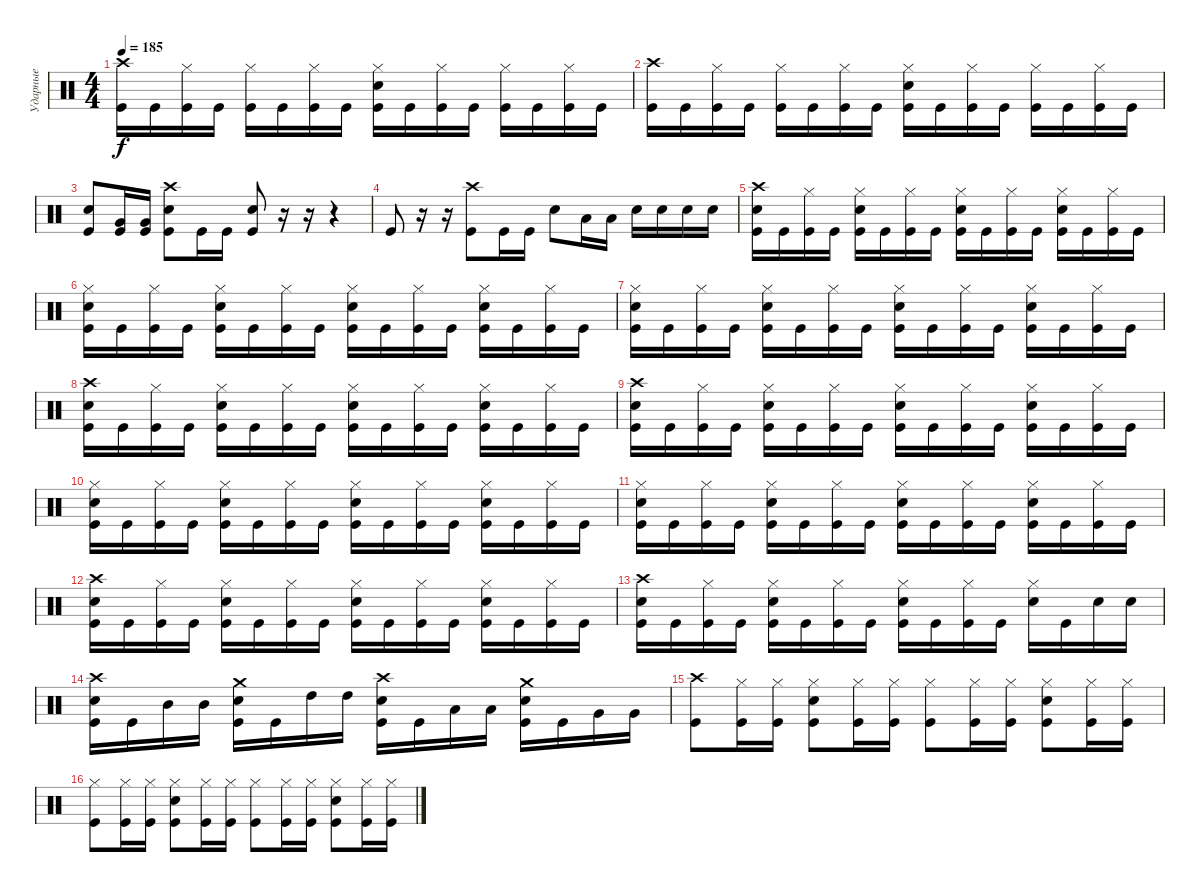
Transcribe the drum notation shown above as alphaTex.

\track ("Ударные" "Ударные") {instrument percussion}
\staff {score}
\articulation defaults
\ts (4 4)
\tempo 185
\clef neutral
\ks c
("Crash high (hit)" "Kick (hit)").16{dy f} "Kick (hit)".16 ("Hi-Hat (closed)" "Kick (hit)").16 "Kick (hit)".16 ("Hi-Hat (closed)" "Kick (hit)").16 "Kick (hit)".16 ("Hi-Hat (closed)" "Kick (hit)").16 "Kick (hit)".16 ("Hi-Hat (closed)" "Electric Snare (hit)" "Kick (hit)").16 "Kick (hit)".16 ("Hi-Hat (closed)" "Kick (hit)").16 "Kick (hit)".16 ("Hi-Hat (closed)" "Kick (hit)").16 "Kick (hit)".16 ("Hi-Hat (closed)" "Kick (hit)").16 "Kick (hit)".16 |
("Crash high (hit)" "Kick (hit)").16 "Kick (hit)".16 ("Hi-Hat (closed)" "Kick (hit)").16 "Kick (hit)".16 ("Hi-Hat (closed)" "Kick (hit)").16 "Kick (hit)".16 ("Hi-Hat (closed)" "Kick (hit)").16 "Kick (hit)".16 ("Hi-Hat (closed)" "Electric Snare (hit)" "Kick (hit)").16 "Kick (hit)".16 ("Hi-Hat (closed)" "Kick (hit)").16 "Kick (hit)".16 ("Hi-Hat (closed)" "Kick (hit)").16 "Kick (hit)".16 ("Hi-Hat (closed)" "Kick (hit)").16 "Kick (hit)".16 |
("Electric Snare (hit)" "Kick (hit)").8 ("Very Low Tom (hit)" "Kick (hit)").16 ("Very Low Tom (hit)" "Kick (hit)").16 ("Crash high (hit)" "Electric Snare (hit)" "Kick (hit)").8 "Kick (hit)".16 "Kick (hit)".16 ("Electric Snare (hit)" "Kick (hit)").8 r.16 r.16 r.4 |
"Kick (hit)".8 r.16 r.16 ("Crash high (hit)" "Kick (hit)").8 "Kick (hit)".16 "Kick (hit)".16 "Electric Snare (hit)".8 "Low Tom (hit)".16 "Low Tom (hit)".16 "Electric Snare (hit)".16 "Electric Snare (hit)".16 "Electric Snare (hit)".16 "Electric Snare (hit)".16 |
("Crash high (hit)" "Electric Snare (hit)" "Kick (hit)").16 "Kick (hit)".16 ("Hi-Hat (closed)" "Kick (hit)").16 "Kick (hit)".16 ("Hi-Hat (closed)" "Electric Snare (hit)" "Kick (hit)").16 "Kick (hit)".16 ("Hi-Hat (closed)" "Kick (hit)").16 "Kick (hit)".16 ("Hi-Hat (closed)" "Electric Snare (hit)" "Kick (hit)").16 "Kick (hit)".16 ("Hi-Hat (closed)" "Kick (hit)").16 "Kick (hit)".16 ("Hi-Hat (closed)" "Electric Snare (hit)" "Kick (hit)").16 "Kick (hit)".16 ("Hi-Hat (closed)" "Kick (hit)").16 "Kick (hit)".16 |
("Hi-Hat (closed)" "Electric Snare (hit)" "Kick (hit)").16 "Kick (hit)".16 ("Hi-Hat (closed)" "Kick (hit)").16 "Kick (hit)".16 ("Hi-Hat (closed)" "Electric Snare (hit)" "Kick (hit)").16 "Kick (hit)".16 ("Hi-Hat (closed)" "Kick (hit)").16 "Kick (hit)".16 ("Hi-Hat (closed)" "Electric Snare (hit)" "Kick (hit)").16 "Kick (hit)".16 ("Hi-Hat (closed)" "Kick (hit)").16 "Kick (hit)".16 ("Hi-Hat (closed)" "Electric Snare (hit)" "Kick (hit)").16 "Kick (hit)".16 ("Hi-Hat (closed)" "Kick (hit)").16 "Kick (hit)".16 |
("Hi-Hat (closed)" "Electric Snare (hit)" "Kick (hit)").16 "Kick (hit)".16 ("Hi-Hat (closed)" "Kick (hit)").16 "Kick (hit)".16 ("Hi-Hat (closed)" "Electric Snare (hit)" "Kick (hit)").16 "Kick (hit)".16 ("Hi-Hat (closed)" "Kick (hit)").16 "Kick (hit)".16 ("Hi-Hat (closed)" "Electric Snare (hit)" "Kick (hit)").16 "Kick (hit)".16 ("Hi-Hat (closed)" "Kick (hit)").16 "Kick (hit)".16 ("Hi-Hat (closed)" "Electric Snare (hit)" "Kick (hit)").16 "Kick (hit)".16 ("Hi-Hat (closed)" "Kick (hit)").16 "Kick (hit)".16 |
("Crash high (hit)" "Electric Snare (hit)" "Kick (hit)").16 "Kick (hit)".16 ("Hi-Hat (closed)" "Kick (hit)").16 "Kick (hit)".16 ("Hi-Hat (closed)" "Electric Snare (hit)" "Kick (hit)").16 "Kick (hit)".16 ("Hi-Hat (closed)" "Kick (hit)").16 "Kick (hit)".16 ("Hi-Hat (closed)" "Electric Snare (hit)" "Kick (hit)").16 "Kick (hit)".16 ("Hi-Hat (closed)" "Kick (hit)").16 "Kick (hit)".16 ("Hi-Hat (closed)" "Electric Snare (hit)" "Kick (hit)").16 "Kick (hit)".16 ("Hi-Hat (closed)" "Kick (hit)").16 "Kick (hit)".16 |
("Crash high (hit)" "Electric Snare (hit)" "Kick (hit)").16 "Kick (hit)".16 ("Hi-Hat (closed)" "Kick (hit)").16 "Kick (hit)".16 ("Hi-Hat (closed)" "Electric Snare (hit)" "Kick (hit)").16 "Kick (hit)".16 ("Hi-Hat (closed)" "Kick (hit)").16 "Kick (hit)".16 ("Hi-Hat (closed)" "Electric Snare (hit)" "Kick (hit)").16 "Kick (hit)".16 ("Hi-Hat (closed)" "Kick (hit)").16 "Kick (hit)".16 ("Hi-Hat (closed)" "Electric Snare (hit)" "Kick (hit)").16 "Kick (hit)".16 ("Hi-Hat (closed)" "Kick (hit)").16 "Kick (hit)".16 |
("Hi-Hat (closed)" "Electric Snare (hit)" "Kick (hit)").16 "Kick (hit)".16 ("Hi-Hat (closed)" "Kick (hit)").16 "Kick (hit)".16 ("Hi-Hat (closed)" "Electric Snare (hit)" "Kick (hit)").16 "Kick (hit)".16 ("Hi-Hat (closed)" "Kick (hit)").16 "Kick (hit)".16 ("Hi-Hat (closed)" "Electric Snare (hit)" "Kick (hit)").16 "Kick (hit)".16 ("Hi-Hat (closed)" "Kick (hit)").16 "Kick (hit)".16 ("Hi-Hat (closed)" "Electric Snare (hit)" "Kick (hit)").16 "Kick (hit)".16 ("Hi-Hat (closed)" "Kick (hit)").16 "Kick (hit)".16 |
("Hi-Hat (closed)" "Electric Snare (hit)" "Kick (hit)").16 "Kick (hit)".16 ("Hi-Hat (closed)" "Kick (hit)").16 "Kick (hit)".16 ("Hi-Hat (closed)" "Electric Snare (hit)" "Kick (hit)").16 "Kick (hit)".16 ("Hi-Hat (closed)" "Kick (hit)").16 "Kick (hit)".16 ("Hi-Hat (closed)" "Electric Snare (hit)" "Kick (hit)").16 "Kick (hit)".16 ("Hi-Hat (closed)" "Kick (hit)").16 "Kick (hit)".16 ("Hi-Hat (closed)" "Electric Snare (hit)" "Kick (hit)").16 "Kick (hit)".16 ("Hi-Hat (closed)" "Kick (hit)").16 "Kick (hit)".16 |
("Crash high (hit)" "Electric Snare (hit)" "Kick (hit)").16 "Kick (hit)".16 ("Hi-Hat (closed)" "Kick (hit)").16 "Kick (hit)".16 ("Hi-Hat (closed)" "Electric Snare (hit)" "Kick (hit)").16 "Kick (hit)".16 ("Hi-Hat (closed)" "Kick (hit)").16 "Kick (hit)".16 ("Hi-Hat (closed)" "Electric Snare (hit)" "Kick (hit)").16 "Kick (hit)".16 ("Hi-Hat (closed)" "Kick (hit)").16 "Kick (hit)".16 ("Hi-Hat (closed)" "Electric Snare (hit)" "Kick (hit)").16 "Kick (hit)".16 ("Hi-Hat (closed)" "Kick (hit)").16 "Kick (hit)".16 |
("Crash high (hit)" "Electric Snare (hit)" "Kick (hit)").16 "Kick (hit)".16 ("Hi-Hat (closed)" "Kick (hit)").16 "Kick (hit)".16 ("Hi-Hat (closed)" "Electric Snare (hit)" "Kick (hit)").16 "Kick (hit)".16 ("Hi-Hat (closed)" "Kick (hit)").16 "Kick (hit)".16 ("Hi-Hat (closed)" "Electric Snare (hit)" "Kick (hit)").16 "Kick (hit)".16 ("Hi-Hat (closed)" "Kick (hit)").16 "Kick (hit)".16 ("Hi-Hat (closed)" "Electric Snare (hit)").16 "Kick (hit)".16 "Electric Snare (hit)".16 "Electric Snare (hit)".16 |
("Crash high (hit)" "Electric Snare (hit)" "Kick (hit)").16 "Kick (hit)".16 "Mid Tom (hit)".16 "Mid Tom (hit)".16 ("Crash medium (hit)" "Electric Snare (hit)" "Kick (hit)").16 "Kick (hit)".16 "High Tom (hit)".16 "High Tom (hit)".16 ("Crash high (hit)" "Electric Snare (hit)" "Kick (hit)").16 "Kick (hit)".16 "Low Tom (hit)".16 "Low Tom (hit)".16 ("Crash medium (hit)" "Electric Snare (hit)" "Kick (hit)").16 "Kick (hit)".16 "Very Low Tom (hit)".16 "Very Low Tom (hit)".16 |
("Crash high (hit)" "Kick (hit)").8 ("Hi-Hat (closed)" "Kick (hit)").16 ("Hi-Hat (closed)" "Kick (hit)").16 ("Hi-Hat (closed)" "Electric Snare (hit)" "Kick (hit)").8 ("Hi-Hat (closed)" "Kick (hit)").16 ("Hi-Hat (closed)" "Kick (hit)").16 ("Hi-Hat (closed)" "Kick (hit)").8 ("Hi-Hat (closed)" "Kick (hit)").16 ("Hi-Hat (closed)" "Kick (hit)").16 ("Hi-Hat (closed)" "Electric Snare (hit)" "Kick (hit)").8 ("Hi-Hat (closed)" "Kick (hit)").16 ("Hi-Hat (closed)" "Kick (hit)").16 |
("Hi-Hat (closed)" "Kick (hit)").8 ("Hi-Hat (closed)" "Kick (hit)").16 ("Hi-Hat (closed)" "Kick (hit)").16 ("Hi-Hat (closed)" "Electric Snare (hit)" "Kick (hit)").8 ("Hi-Hat (closed)" "Kick (hit)").16 ("Hi-Hat (closed)" "Kick (hit)").16 ("Hi-Hat (closed)" "Kick (hit)").8 ("Hi-Hat (closed)" "Kick (hit)").16 ("Hi-Hat (closed)" "Kick (hit)").16 ("Hi-Hat (closed)" "Electric Snare (hit)" "Kick (hit)").8 ("Hi-Hat (closed)" "Kick (hit)").16 ("Hi-Hat (closed)" "Kick (hit)").16
